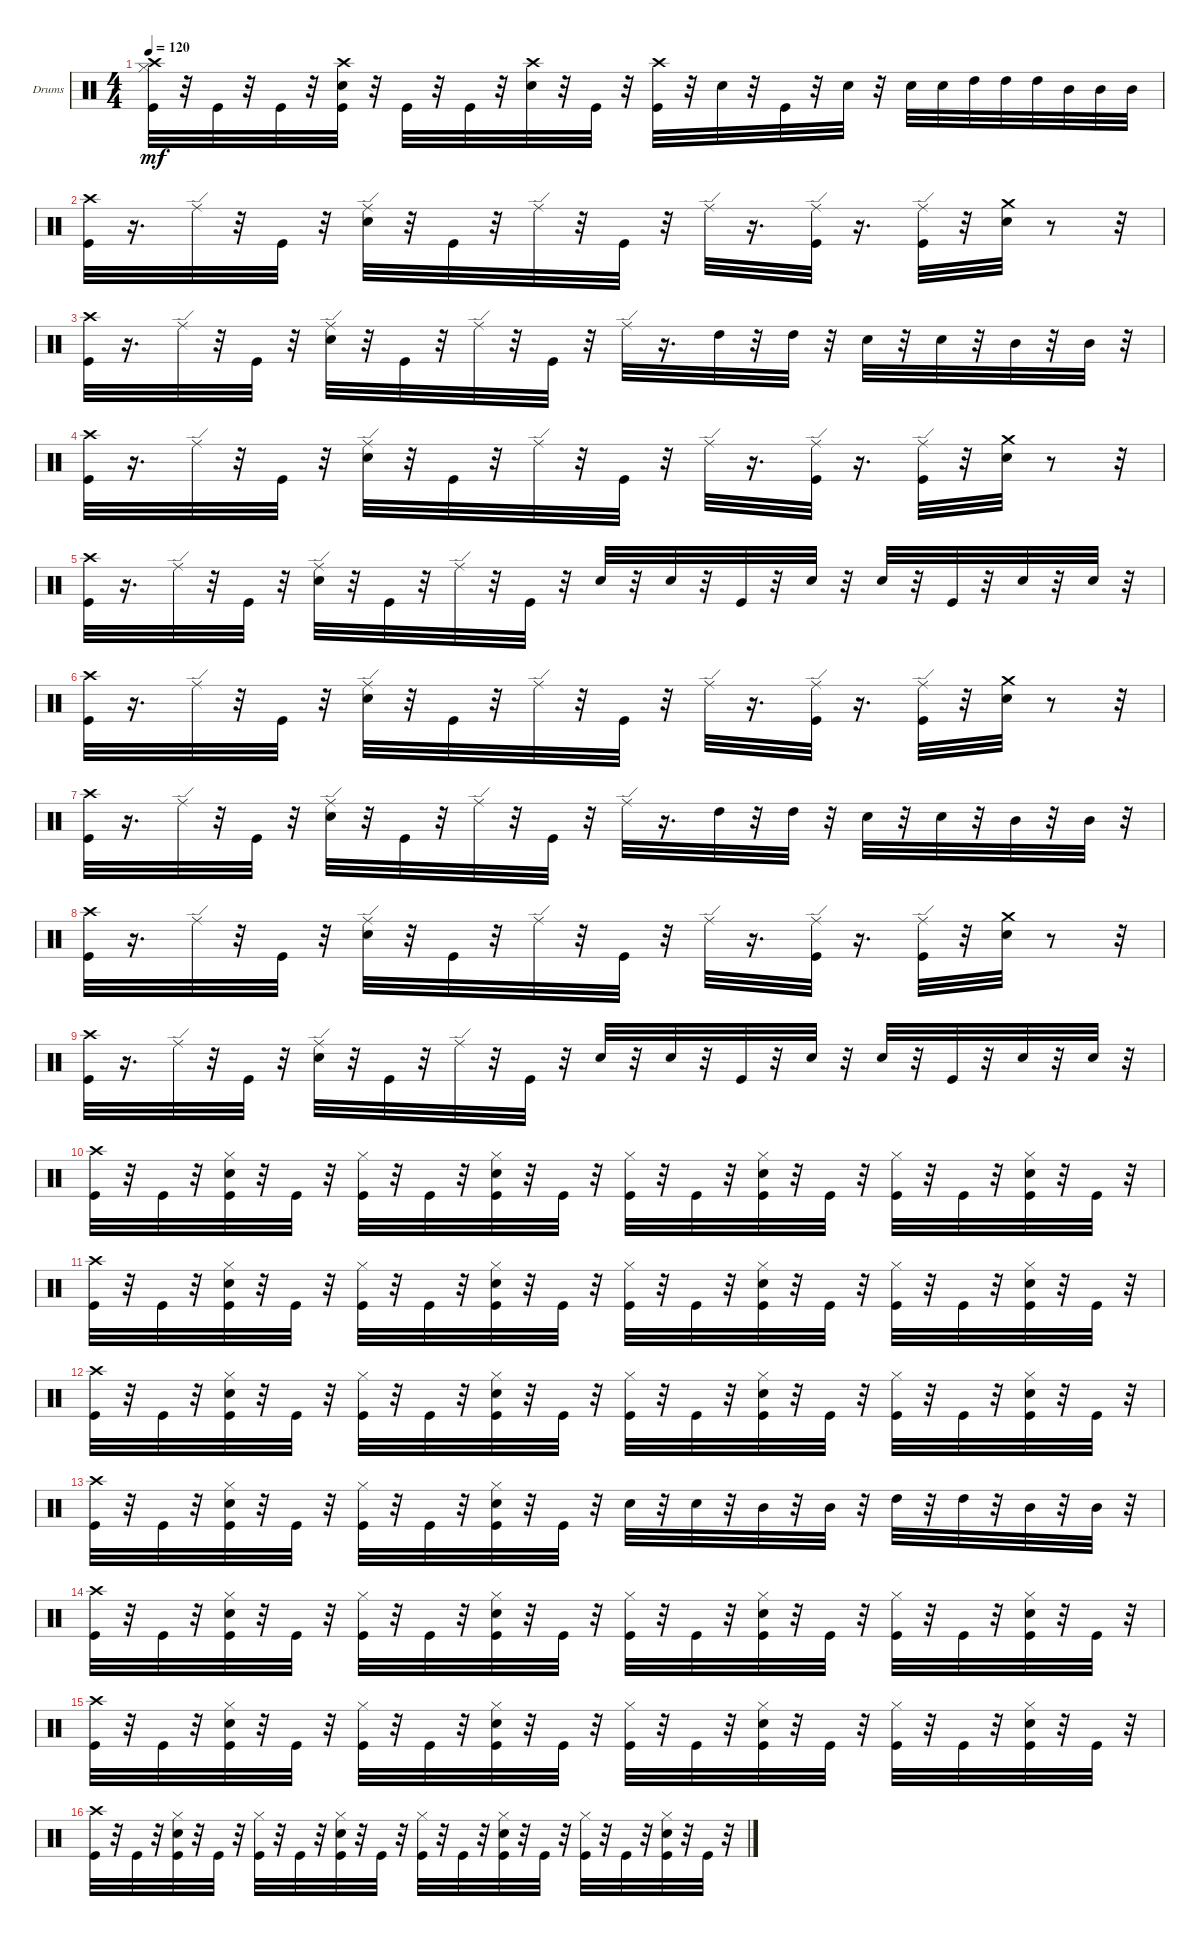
\bracketExtendMode groupsimilarinstruments
\firstSystemTrackNameOrientation horizontal
\otherSystemsTrackNameOrientation horizontal
\track ("" "Drums") {instrument percussion}
\staff {score}
\articulation defaults
\ts (4 4)
\tempo 120
\clef neutral
\ks c
("Crash high (hit)" "Hi-Hat (closed)" "Kick (hit)").32{dy mf} r.32 "Kick (hit)".32 r.32 "Kick (hit)".32 r.32 ("Kick (hit)" "Crash high (hit)" "Snare (hit) 2").32 r.32 "Kick (hit)".32 r.32 "Kick (hit)".32 r.32 ("Snare (hit) 2" "Crash high (hit)").32 r.32 "Kick (hit)".32 r.32 ("Crash high (hit)" "Kick (hit)").32 r.32 "Snare (hit) 2".32 r.32 "Kick (hit)".32 r.32 "Snare (hit) 2".32 r.32 "Snare (hit) 2".32 "Snare (hit) 2".32 "High Tom (hit)".32 "High Tom (hit)".32 "High Tom (hit)".32 "Mid Tom (hit)".32 "Mid Tom (hit)".32 "Mid Tom (hit)".32 |
("Crash high (hit)" "Kick (hit)").32 r.16{d} "Ride (edge)".32 r.32 "Kick (hit)".32 r.32 ("Ride (edge)" "Snare (hit) 2").32 r.32 "Kick (hit)".32 r.32 "Ride (edge)".32 r.32 "Kick (hit)".32 r.32 "Ride (edge)".32 r.16{d} ("Ride (edge)" "Kick (hit)").32 r.16{d} ("Ride (edge)" "Kick (hit)").32 r.32 ("Crash medium (hit)" "Snare (hit) 2").32 r.8 r.32 |
("Crash high (hit)" "Kick (hit)").32 r.16{d} "Ride (edge)".32 r.32 "Kick (hit)".32 r.32 ("Ride (edge)" "Snare (hit) 2").32 r.32 "Kick (hit)".32 r.32 "Ride (edge)".32 r.32 "Kick (hit)".32 r.32 "Ride (edge)".32 r.16{d} "High Tom (hit)".32 r.32 "High Tom (hit)".32 r.32 "Snare (hit) 2".32 r.32 "Snare (hit) 2".32 r.32 "Mid Tom (hit)".32 r.32 "Mid Tom (hit)".32 r.32 |
("Crash high (hit)" "Kick (hit)").32 r.16{d} "Ride (edge)".32 r.32 "Kick (hit)".32 r.32 ("Ride (edge)" "Snare (hit) 2").32 r.32 "Kick (hit)".32 r.32 "Ride (edge)".32 r.32 "Kick (hit)".32 r.32 "Ride (edge)".32 r.16{d} ("Ride (edge)" "Kick (hit)").32 r.16{d} ("Ride (edge)" "Kick (hit)").32 r.32 ("Crash medium (hit)" "Snare (hit) 2").32 r.8 r.32 |
("Crash high (hit)" "Kick (hit)").32 r.16{d} "Ride (edge)".32 r.32 "Kick (hit)".32 r.32 ("Snare (hit) 2" "Ride (edge)").32 r.32 "Kick (hit)".32 r.32 "Ride (edge)".32 r.32 "Kick (hit)".32 r.32 "Snare (hit) 2".32 r.32 "Snare (hit) 2".32 r.32 "Kick (hit)".32 r.32 "Snare (hit) 2".32 r.32 "Snare (hit) 2".32 r.32 "Kick (hit)".32 r.32 "Snare (hit) 2".32 r.32 "Snare (hit) 2".32 r.32 |
("Crash high (hit)" "Kick (hit)").32 r.16{d} "Ride (edge)".32 r.32 "Kick (hit)".32 r.32 ("Ride (edge)" "Snare (hit) 2").32 r.32 "Kick (hit)".32 r.32 "Ride (edge)".32 r.32 "Kick (hit)".32 r.32 "Ride (edge)".32 r.16{d} ("Ride (edge)" "Kick (hit)").32 r.16{d} ("Ride (edge)" "Kick (hit)").32 r.32 ("Crash medium (hit)" "Snare (hit) 2").32 r.8 r.32 |
("Crash high (hit)" "Kick (hit)").32 r.16{d} "Ride (edge)".32 r.32 "Kick (hit)".32 r.32 ("Ride (edge)" "Snare (hit) 2").32 r.32 "Kick (hit)".32 r.32 "Ride (edge)".32 r.32 "Kick (hit)".32 r.32 "Ride (edge)".32 r.16{d} "High Tom (hit)".32 r.32 "High Tom (hit)".32 r.32 "Snare (hit) 2".32 r.32 "Snare (hit) 2".32 r.32 "Mid Tom (hit)".32 r.32 "Mid Tom (hit)".32 r.32 |
("Crash high (hit)" "Kick (hit)").32 r.16{d} "Ride (edge)".32 r.32 "Kick (hit)".32 r.32 ("Ride (edge)" "Snare (hit) 2").32 r.32 "Kick (hit)".32 r.32 "Ride (edge)".32 r.32 "Kick (hit)".32 r.32 "Ride (edge)".32 r.16{d} ("Ride (edge)" "Kick (hit)").32 r.16{d} ("Ride (edge)" "Kick (hit)").32 r.32 ("Crash medium (hit)" "Snare (hit) 2").32 r.8 r.32 |
("Crash high (hit)" "Kick (hit)").32 r.16{d} "Ride (edge)".32 r.32 "Kick (hit)".32 r.32 ("Snare (hit) 2" "Ride (edge)").32 r.32 "Kick (hit)".32 r.32 "Ride (edge)".32 r.32 "Kick (hit)".32 r.32 "Snare (hit) 2".32 r.32 "Snare (hit) 2".32 r.32 "Kick (hit)".32 r.32 "Snare (hit) 2".32 r.32 "Snare (hit) 2".32 r.32 "Kick (hit)".32 r.32 "Snare (hit) 2".32 r.32 "Snare (hit) 2".32 r.32 |
("Crash high (hit)" "Kick (hit)").32 r.32 "Kick (hit)".32 r.32 ("Kick (hit)" "Hi-Hat (closed)" "Snare (hit) 2").32 r.32 "Kick (hit)".32 r.32 ("Kick (hit)" "Hi-Hat (closed)").32 r.32 "Kick (hit)".32 r.32 ("Kick (hit)" "Snare (hit) 2" "Hi-Hat (closed)").32 r.32 "Kick (hit)".32 r.32 ("Kick (hit)" "Hi-Hat (closed)").32 r.32 "Kick (hit)".32 r.32 ("Snare (hit) 2" "Kick (hit)" "Hi-Hat (closed)").32 r.32 "Kick (hit)".32 r.32 ("Kick (hit)" "Hi-Hat (closed)").32 r.32 "Kick (hit)".32 r.32 ("Kick (hit)" "Snare (hit) 2" "Hi-Hat (closed)").32 r.32 "Kick (hit)".32 r.32 |
("Crash high (hit)" "Kick (hit)").32 r.32 "Kick (hit)".32 r.32 ("Kick (hit)" "Hi-Hat (closed)" "Snare (hit) 2").32 r.32 "Kick (hit)".32 r.32 ("Kick (hit)" "Hi-Hat (closed)").32 r.32 "Kick (hit)".32 r.32 ("Kick (hit)" "Snare (hit) 2" "Hi-Hat (closed)").32 r.32 "Kick (hit)".32 r.32 ("Kick (hit)" "Hi-Hat (closed)").32 r.32 "Kick (hit)".32 r.32 ("Snare (hit) 2" "Kick (hit)" "Hi-Hat (closed)").32 r.32 "Kick (hit)".32 r.32 ("Kick (hit)" "Hi-Hat (closed)").32 r.32 "Kick (hit)".32 r.32 ("Kick (hit)" "Snare (hit) 2" "Hi-Hat (closed)").32 r.32 "Kick (hit)".32 r.32 |
("Crash high (hit)" "Kick (hit)").32 r.32 "Kick (hit)".32 r.32 ("Kick (hit)" "Hi-Hat (closed)" "Snare (hit) 2").32 r.32 "Kick (hit)".32 r.32 ("Kick (hit)" "Hi-Hat (closed)").32 r.32 "Kick (hit)".32 r.32 ("Kick (hit)" "Snare (hit) 2" "Hi-Hat (closed)").32 r.32 "Kick (hit)".32 r.32 ("Kick (hit)" "Hi-Hat (closed)").32 r.32 "Kick (hit)".32 r.32 ("Snare (hit) 2" "Kick (hit)" "Hi-Hat (closed)").32 r.32 "Kick (hit)".32 r.32 ("Kick (hit)" "Hi-Hat (closed)").32 r.32 "Kick (hit)".32 r.32 ("Kick (hit)" "Snare (hit) 2" "Hi-Hat (closed)").32 r.32 "Kick (hit)".32 r.32 |
("Crash high (hit)" "Kick (hit)").32 r.32 "Kick (hit)".32 r.32 ("Kick (hit)" "Hi-Hat (closed)" "Snare (hit) 2").32 r.32 "Kick (hit)".32 r.32 ("Kick (hit)" "Hi-Hat (closed)").32 r.32 "Kick (hit)".32 r.32 ("Kick (hit)" "Snare (hit) 2" "Hi-Hat (closed)").32 r.32 "Kick (hit)".32 r.32 "Snare (hit) 2".32 r.32 "Snare (hit) 2".32 r.32 "Mid Tom (hit)".32 r.32 "Mid Tom (hit)".32 r.32 "High Tom (hit)".32 r.32 "High Tom (hit)".32 r.32 "Mid Tom (hit)".32 r.32 "Mid Tom (hit)".32 r.32 |
("Crash high (hit)" "Kick (hit)").32 r.32 "Kick (hit)".32 r.32 ("Kick (hit)" "Hi-Hat (closed)" "Snare (hit) 2").32 r.32 "Kick (hit)".32 r.32 ("Kick (hit)" "Hi-Hat (closed)").32 r.32 "Kick (hit)".32 r.32 ("Kick (hit)" "Snare (hit) 2" "Hi-Hat (closed)").32 r.32 "Kick (hit)".32 r.32 ("Kick (hit)" "Hi-Hat (closed)").32 r.32 "Kick (hit)".32 r.32 ("Snare (hit) 2" "Kick (hit)" "Hi-Hat (closed)").32 r.32 "Kick (hit)".32 r.32 ("Kick (hit)" "Hi-Hat (closed)").32 r.32 "Kick (hit)".32 r.32 ("Kick (hit)" "Snare (hit) 2" "Hi-Hat (closed)").32 r.32 "Kick (hit)".32 r.32 |
("Crash high (hit)" "Kick (hit)").32 r.32 "Kick (hit)".32 r.32 ("Kick (hit)" "Hi-Hat (closed)" "Snare (hit) 2").32 r.32 "Kick (hit)".32 r.32 ("Kick (hit)" "Hi-Hat (closed)").32 r.32 "Kick (hit)".32 r.32 ("Kick (hit)" "Snare (hit) 2" "Hi-Hat (closed)").32 r.32 "Kick (hit)".32 r.32 ("Kick (hit)" "Hi-Hat (closed)").32 r.32 "Kick (hit)".32 r.32 ("Snare (hit) 2" "Kick (hit)" "Hi-Hat (closed)").32 r.32 "Kick (hit)".32 r.32 ("Kick (hit)" "Hi-Hat (closed)").32 r.32 "Kick (hit)".32 r.32 ("Kick (hit)" "Snare (hit) 2" "Hi-Hat (closed)").32 r.32 "Kick (hit)".32 r.32 |
("Crash high (hit)" "Kick (hit)").32 r.32 "Kick (hit)".32 r.32 ("Kick (hit)" "Hi-Hat (closed)" "Snare (hit) 2").32 r.32 "Kick (hit)".32 r.32 ("Kick (hit)" "Hi-Hat (closed)").32 r.32 "Kick (hit)".32 r.32 ("Kick (hit)" "Snare (hit) 2" "Hi-Hat (closed)").32 r.32 "Kick (hit)".32 r.32 ("Kick (hit)" "Hi-Hat (closed)").32 r.32 "Kick (hit)".32 r.32 ("Snare (hit) 2" "Kick (hit)" "Hi-Hat (closed)").32 r.32 "Kick (hit)".32 r.32 ("Kick (hit)" "Hi-Hat (closed)").32 r.32 "Kick (hit)".32 r.32 ("Kick (hit)" "Snare (hit) 2" "Hi-Hat (closed)").32 r.32 "Kick (hit)".32 r.32
